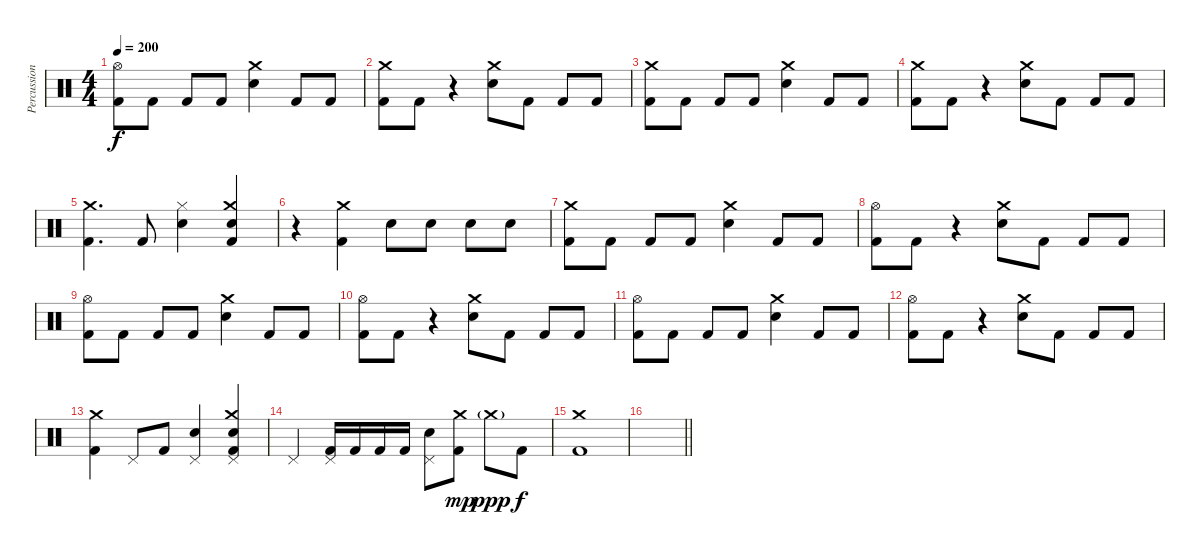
\track ("Percussion" "Percussion") {instrument percussion}
\staff {score}
\articulation defaults
\ts (4 4)
\tempo 200
\clef neutral
\ks c
("Hi-Hat (open)" "Kick (hit) 2").8{dy f} "Kick (hit) 2".8 "Kick (hit) 2".8 "Kick (hit) 2".8 ("Crash medium (hit)" "Electric Snare (hit)").4 "Kick (hit) 2".8 "Kick (hit) 2".8 |
("Crash medium (hit)" "Kick (hit) 2").8 "Kick (hit) 2".8 r.4 ("Crash medium (hit)" "Electric Snare (hit)").8 "Kick (hit) 2".8 "Kick (hit) 2".8 "Kick (hit) 2".8 |
("Crash medium (hit)" "Kick (hit) 2").8 "Kick (hit) 2".8 "Kick (hit) 2".8 "Kick (hit) 2".8 ("Crash medium (hit)" "Electric Snare (hit)").4 "Kick (hit) 2".8 "Kick (hit) 2".8 |
("Crash medium (hit)" "Kick (hit) 2").8 "Kick (hit) 2".8 r.4 ("Crash medium (hit)" "Electric Snare (hit)").8 "Kick (hit) 2".8 "Kick (hit) 2".8 "Kick (hit) 2".8 |
("Crash medium (hit)" "Kick (hit) 2").4{d} "Kick (hit) 2".8 ("Hi-Hat (closed)" "Electric Snare (hit)").4 ("Crash medium (hit)" "Electric Snare (hit)" "Kick (hit) 2").4 |
r.4 ("Crash medium (hit)" "Kick (hit) 2").4 "Electric Snare (hit)".8 "Electric Snare (hit)".8 "Electric Snare (hit)".8 "Electric Snare (hit)".8 |
("Crash medium (hit)" "Kick (hit) 2").8 "Kick (hit) 2".8 "Kick (hit) 2".8 "Kick (hit) 2".8 ("Crash medium (hit)" "Electric Snare (hit)").4 "Kick (hit) 2".8 "Kick (hit) 2".8 |
("Hi-Hat (open)" "Kick (hit) 2").8 "Kick (hit) 2".8 r.4 ("Crash medium (hit)" "Electric Snare (hit)").8 "Kick (hit) 2".8 "Kick (hit) 2".8 "Kick (hit) 2".8 |
("Hi-Hat (open)" "Kick (hit) 2").8 "Kick (hit) 2".8 "Kick (hit) 2".8 "Kick (hit) 2".8 ("Crash medium (hit)" "Electric Snare (hit)").4 "Kick (hit) 2".8 "Kick (hit) 2".8 |
("Hi-Hat (open)" "Kick (hit) 2").8 "Kick (hit) 2".8 r.4 ("Crash medium (hit)" "Electric Snare (hit)").8 "Kick (hit) 2".8 "Kick (hit) 2".8 "Kick (hit) 2".8 |
("Hi-Hat (open)" "Kick (hit) 2").8 "Kick (hit) 2".8 "Kick (hit) 2".8 "Kick (hit) 2".8 ("Crash medium (hit)" "Electric Snare (hit)").4 "Kick (hit) 2".8 "Kick (hit) 2".8 |
("Hi-Hat (open)" "Kick (hit) 2").8 "Kick (hit) 2".8 r.4 ("Crash medium (hit)" "Electric Snare (hit)").8 "Kick (hit) 2".8 "Kick (hit) 2".8 "Kick (hit) 2".8 |
("Crash medium (hit)" "Kick (hit) 2").4 "Pedal Hi-Hat (hit)".8 "Kick (hit) 2".8 ("Pedal Hi-Hat (hit)" "Electric Snare (hit)").4 ("Crash medium (hit)" "Pedal Hi-Hat (hit)" "Electric Snare (hit)" "Kick (hit) 2").4 |
"Pedal Hi-Hat (hit)".4 ("Pedal Hi-Hat (hit)" "Kick (hit) 2").16 "Kick (hit) 2".16 "Kick (hit) 2".16 "Kick (hit) 2".16 ("Pedal Hi-Hat (hit)" "Electric Snare (hit)").8 ("Crash medium (hit)" "Kick (hit) 2").8{dy mp} "Crash medium (hit)"{g}.8{dy ppp} "Kick (hit) 2".8{dy f} |
("Crash medium (hit)" "Kick (hit) 2").1 |
\barLineRight lightlight
